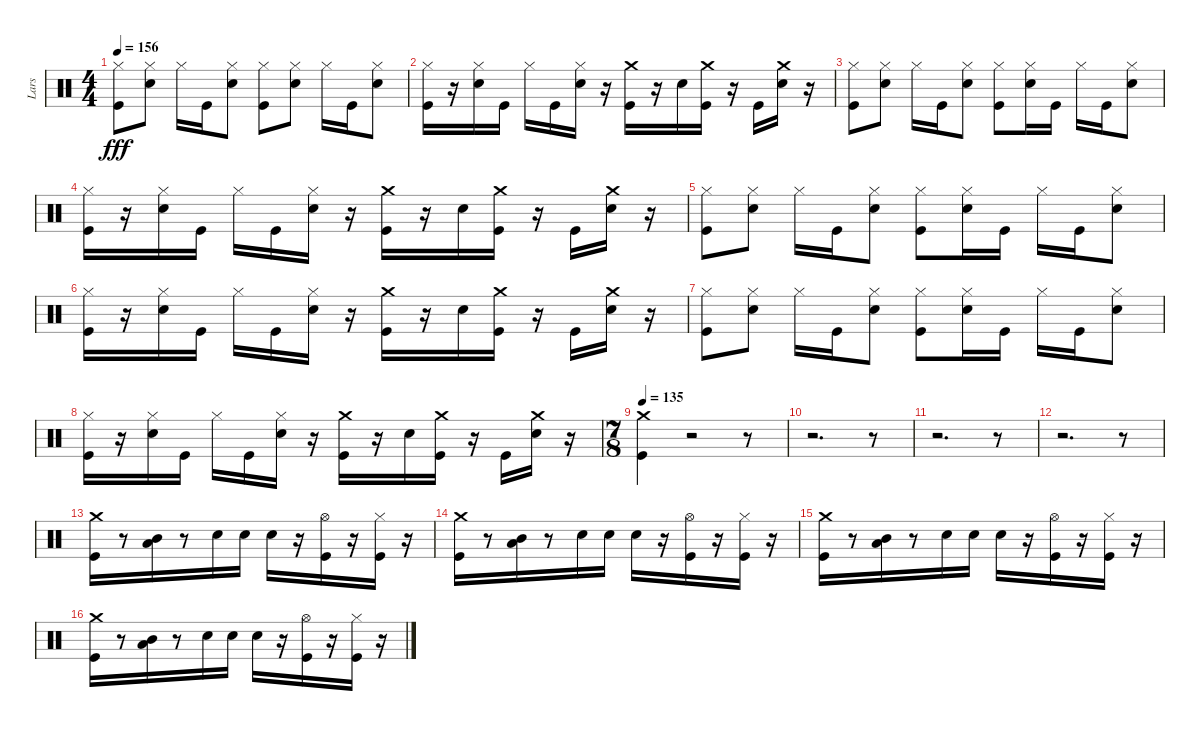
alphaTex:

\track ("Lars" "Lars") {instrument percussion bank 102}
\staff {score}
\articulation defaults
\ts (4 4)
\tempo 156
\clef neutral
\ks c
("Hi-Hat (closed)" "Kick (hit)").8{dy fff} ("Snare (hit) 2" "Hi-Hat (closed)").8 "Hi-Hat (closed)".16 "Kick (hit)".16 ("Snare (hit) 2" "Hi-Hat (closed)").8 ("Kick (hit)" "Hi-Hat (closed)").8 ("Snare (hit) 2" "Hi-Hat (closed)").8 "Hi-Hat (closed)".16 "Kick (hit)".16 ("Snare (hit) 2" "Hi-Hat (closed)").8 |
("Hi-Hat (closed)" "Kick (hit)").16 r.16 ("Hi-Hat (closed)" "Snare (hit) 2").16 "Kick (hit)".16 "Hi-Hat (closed)".16 "Kick (hit)".16 ("Hi-Hat (closed)" "Snare (hit) 2").16 r.16 ("Crash medium (hit)" "Kick (hit)").16 r.16 "Snare (hit) 2".16 ("Crash medium (hit)" "Kick (hit)").16 r.16 "Kick (hit)".16 ("Crash medium (hit)" "Snare (hit) 2").16 r.16 |
("Hi-Hat (closed)" "Kick (hit)").8 ("Snare (hit) 2" "Hi-Hat (closed)").8 "Hi-Hat (closed)".16 "Kick (hit)".16 ("Snare (hit) 2" "Hi-Hat (closed)").8 ("Kick (hit)" "Hi-Hat (closed)").8 ("Snare (hit) 2" "Hi-Hat (closed)").16 "Kick (hit)".16 "Hi-Hat (closed)".16 "Kick (hit)".16 ("Snare (hit) 2" "Hi-Hat (closed)").8 |
("Hi-Hat (closed)" "Kick (hit)").16 r.16 ("Hi-Hat (closed)" "Snare (hit) 2").16 "Kick (hit)".16 "Hi-Hat (closed)".16 "Kick (hit)".16 ("Hi-Hat (closed)" "Snare (hit) 2").16 r.16 ("Crash medium (hit)" "Kick (hit)").16 r.16 "Snare (hit) 2".16 ("Crash medium (hit)" "Kick (hit)").16 r.16 "Kick (hit)".16 ("Crash medium (hit)" "Snare (hit) 2").16 r.16 |
("Hi-Hat (closed)" "Kick (hit)").8 ("Snare (hit) 2" "Hi-Hat (closed)").8 "Hi-Hat (closed)".16 "Kick (hit)".16 ("Snare (hit) 2" "Hi-Hat (closed)").8 ("Kick (hit)" "Hi-Hat (closed)").8 ("Snare (hit) 2" "Hi-Hat (closed)").16 "Kick (hit)".16 "Hi-Hat (closed)".16 "Kick (hit)".16 ("Snare (hit) 2" "Hi-Hat (closed)").8 |
("Hi-Hat (closed)" "Kick (hit)").16 r.16 ("Hi-Hat (closed)" "Snare (hit) 2").16 "Kick (hit)".16 "Hi-Hat (closed)".16 "Kick (hit)".16 ("Hi-Hat (closed)" "Snare (hit) 2").16 r.16 ("Crash medium (hit)" "Kick (hit)").16 r.16 "Snare (hit) 2".16 ("Crash medium (hit)" "Kick (hit)").16 r.16 "Kick (hit)".16 ("Crash medium (hit)" "Snare (hit) 2").16 r.16 |
("Hi-Hat (closed)" "Kick (hit)").8 ("Snare (hit) 2" "Hi-Hat (closed)").8 "Hi-Hat (closed)".16 "Kick (hit)".16 ("Snare (hit) 2" "Hi-Hat (closed)").8 ("Kick (hit)" "Hi-Hat (closed)").8 ("Snare (hit) 2" "Hi-Hat (closed)").16 "Kick (hit)".16 "Hi-Hat (closed)".16 "Kick (hit)".16 ("Snare (hit) 2" "Hi-Hat (closed)").8 |
("Hi-Hat (closed)" "Kick (hit)").16 r.16 ("Hi-Hat (closed)" "Snare (hit) 2").16 "Kick (hit)".16 "Hi-Hat (closed)".16 "Kick (hit)".16 ("Hi-Hat (closed)" "Snare (hit) 2").16 r.16 ("Crash medium (hit)" "Kick (hit)").16 r.16 "Snare (hit) 2".16 ("Crash medium (hit)" "Kick (hit)").16 r.16 "Kick (hit)".16 ("Crash medium (hit)" "Snare (hit) 2").16 r.16 |
\ts (7 8)
\tempo 135
("Crash medium (hit)" "Kick (hit)").4 r.2 r.8 |
r.2{d} r.8 |
r.2{d} r.8 |
r.2{d} r.8 |
("Crash medium (hit)" "Kick (hit)").16 r.8 ("Low Tom (hit)" "Mid Tom (hit)").16 r.8 "Snare (hit) 2".16 "Snare (hit) 2".16 "Snare (hit) 2".16 r.16 ("Hi-Hat (open)" "Kick (hit)").16 r.16 ("Hi-Hat (closed)" "Kick (hit)").16 r.16 |
("Crash medium (hit)" "Kick (hit)").16 r.8 ("Low Tom (hit)" "Mid Tom (hit)").16 r.8 "Snare (hit) 2".16 "Snare (hit) 2".16 "Snare (hit) 2".16 r.16 ("Hi-Hat (open)" "Kick (hit)").16 r.16 ("Hi-Hat (closed)" "Kick (hit)").16 r.16 |
("Crash medium (hit)" "Kick (hit)").16 r.8 ("Low Tom (hit)" "Mid Tom (hit)").16 r.8 "Snare (hit) 2".16 "Snare (hit) 2".16 "Snare (hit) 2".16 r.16 ("Hi-Hat (open)" "Kick (hit)").16 r.16 ("Hi-Hat (closed)" "Kick (hit)").16 r.16 |
("Crash medium (hit)" "Kick (hit)").16 r.8 ("Low Tom (hit)" "Mid Tom (hit)").16 r.8 "Snare (hit) 2".16 "Snare (hit) 2".16 "Snare (hit) 2".16 r.16 ("Hi-Hat (open)" "Kick (hit)").16 r.16 ("Hi-Hat (closed)" "Kick (hit)").16 r.16
